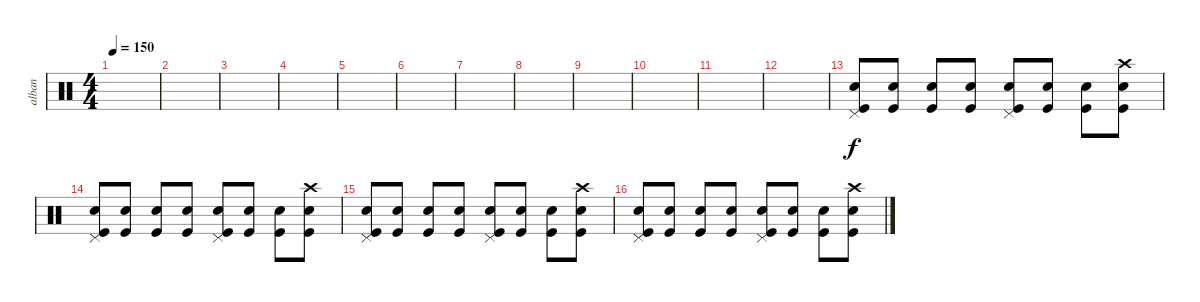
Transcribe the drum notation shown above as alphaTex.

\track ("alban" "alban") {instrument percussion}
\staff {score}
\articulation defaults
\ts (4 4)
\tempo 150
\clef neutral
\ks c
|
|
|
|
|
|
|
|
|
|
|
|
("Electric Snare (hit)" "Kick (hit)" "Pedal Hi-Hat (hit)").8 ("Electric Snare (hit)" "Kick (hit)").8 ("Electric Snare (hit)" "Kick (hit)").8 ("Electric Snare (hit)" "Kick (hit)").8 ("Electric Snare (hit)" "Kick (hit)" "Pedal Hi-Hat (hit)").8 ("Electric Snare (hit)" "Kick (hit)").8 ("Electric Snare (hit)" "Kick (hit)").8 ("Electric Snare (hit)" "Kick (hit)" "Crash high (hit)").8 |
("Electric Snare (hit)" "Kick (hit)" "Pedal Hi-Hat (hit)").8 ("Electric Snare (hit)" "Kick (hit)").8 ("Electric Snare (hit)" "Kick (hit)").8 ("Electric Snare (hit)" "Kick (hit)").8 ("Electric Snare (hit)" "Kick (hit)" "Pedal Hi-Hat (hit)").8 ("Electric Snare (hit)" "Kick (hit)").8 ("Electric Snare (hit)" "Kick (hit)").8 ("Electric Snare (hit)" "Kick (hit)" "Crash high (hit)").8 |
("Electric Snare (hit)" "Kick (hit)" "Pedal Hi-Hat (hit)").8 ("Electric Snare (hit)" "Kick (hit)").8 ("Electric Snare (hit)" "Kick (hit)").8 ("Electric Snare (hit)" "Kick (hit)").8 ("Electric Snare (hit)" "Kick (hit)" "Pedal Hi-Hat (hit)").8 ("Electric Snare (hit)" "Kick (hit)").8 ("Electric Snare (hit)" "Kick (hit)").8 ("Electric Snare (hit)" "Kick (hit)" "Crash high (hit)").8 |
("Electric Snare (hit)" "Kick (hit)" "Pedal Hi-Hat (hit)").8 ("Electric Snare (hit)" "Kick (hit)").8 ("Electric Snare (hit)" "Kick (hit)").8 ("Electric Snare (hit)" "Kick (hit)").8 ("Electric Snare (hit)" "Kick (hit)" "Pedal Hi-Hat (hit)").8 ("Electric Snare (hit)" "Kick (hit)").8 ("Electric Snare (hit)" "Kick (hit)").8 ("Electric Snare (hit)" "Kick (hit)" "Crash high (hit)").8
